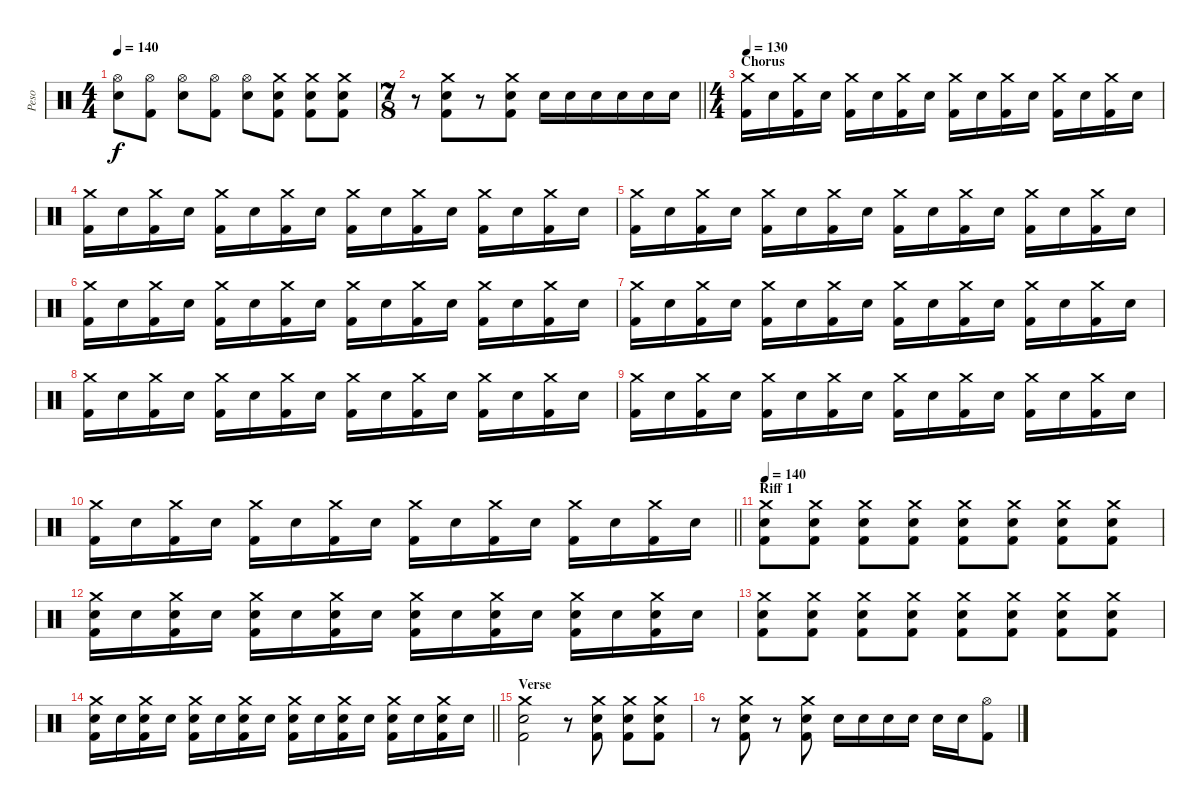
\track ("Peso" "Peso") {instrument percussion}
\staff {score}
\articulation defaults
\ts (4 4)
\tempo 140
\clef neutral
\ks c
("Hi-Hat (open)" "Electric Snare (hit)").8{dy f} ("Hi-Hat (open)" "Kick (hit) 2").8 ("Hi-Hat (open)" "Electric Snare (hit)").8 ("Hi-Hat (open)" "Kick (hit) 2").8 ("Hi-Hat (open)" "Electric Snare (hit)").8 ("Crash medium (hit)" "Electric Snare (hit)" "Kick (hit) 2").8 ("Crash medium (hit)" "Electric Snare (hit)" "Kick (hit) 2").8 ("Crash medium (hit)" "Electric Snare (hit)" "Kick (hit) 2").8 |
\ts (7 8)
\barLineRight lightlight
r.8 ("Crash medium (hit)" "Electric Snare (hit)" "Kick (hit) 2").8 r.8 ("Crash medium (hit)" "Electric Snare (hit)" "Kick (hit) 2").8 "Electric Snare (hit)".16 "Electric Snare (hit)".16 "Electric Snare (hit)".16 "Electric Snare (hit)".16 "Electric Snare (hit)".16 "Electric Snare (hit)".16 |
\ts (4 4)
\section ("" "Chorus")
\tempo 130
("Crash medium (hit)" "Kick (hit) 2").16 "Electric Snare (hit)".16 ("Crash medium (hit)" "Kick (hit) 2").16 "Electric Snare (hit)".16 ("Crash medium (hit)" "Kick (hit) 2").16 "Electric Snare (hit)".16 ("Crash medium (hit)" "Kick (hit) 2").16 "Electric Snare (hit)".16 ("Crash medium (hit)" "Kick (hit) 2").16 "Electric Snare (hit)".16 ("Crash medium (hit)" "Kick (hit) 2").16 "Electric Snare (hit)".16 ("Crash medium (hit)" "Kick (hit) 2").16 "Electric Snare (hit)".16 ("Crash medium (hit)" "Kick (hit) 2").16 "Electric Snare (hit)".16 |
("Crash medium (hit)" "Kick (hit) 2").16 "Electric Snare (hit)".16 ("Crash medium (hit)" "Kick (hit) 2").16 "Electric Snare (hit)".16 ("Crash medium (hit)" "Kick (hit) 2").16 "Electric Snare (hit)".16 ("Crash medium (hit)" "Kick (hit) 2").16 "Electric Snare (hit)".16 ("Crash medium (hit)" "Kick (hit) 2").16 "Electric Snare (hit)".16 ("Crash medium (hit)" "Kick (hit) 2").16 "Electric Snare (hit)".16 ("Crash medium (hit)" "Kick (hit) 2").16 "Electric Snare (hit)".16 ("Crash medium (hit)" "Kick (hit) 2").16 "Electric Snare (hit)".16 |
("Crash medium (hit)" "Kick (hit) 2").16 "Electric Snare (hit)".16 ("Crash medium (hit)" "Kick (hit) 2").16 "Electric Snare (hit)".16 ("Crash medium (hit)" "Kick (hit) 2").16 "Electric Snare (hit)".16 ("Crash medium (hit)" "Kick (hit) 2").16 "Electric Snare (hit)".16 ("Crash medium (hit)" "Kick (hit) 2").16 "Electric Snare (hit)".16 ("Crash medium (hit)" "Kick (hit) 2").16 "Electric Snare (hit)".16 ("Crash medium (hit)" "Kick (hit) 2").16 "Electric Snare (hit)".16 ("Crash medium (hit)" "Kick (hit) 2").16 "Electric Snare (hit)".16 |
("Crash medium (hit)" "Kick (hit) 2").16 "Electric Snare (hit)".16 ("Crash medium (hit)" "Kick (hit) 2").16 "Electric Snare (hit)".16 ("Crash medium (hit)" "Kick (hit) 2").16 "Electric Snare (hit)".16 ("Crash medium (hit)" "Kick (hit) 2").16 "Electric Snare (hit)".16 ("Crash medium (hit)" "Kick (hit) 2").16 "Electric Snare (hit)".16 ("Crash medium (hit)" "Kick (hit) 2").16 "Electric Snare (hit)".16 ("Crash medium (hit)" "Kick (hit) 2").16 "Electric Snare (hit)".16 ("Crash medium (hit)" "Kick (hit) 2").16 "Electric Snare (hit)".16 |
("Crash medium (hit)" "Kick (hit) 2").16 "Electric Snare (hit)".16 ("Crash medium (hit)" "Kick (hit) 2").16 "Electric Snare (hit)".16 ("Crash medium (hit)" "Kick (hit) 2").16 "Electric Snare (hit)".16 ("Crash medium (hit)" "Kick (hit) 2").16 "Electric Snare (hit)".16 ("Crash medium (hit)" "Kick (hit) 2").16 "Electric Snare (hit)".16 ("Crash medium (hit)" "Kick (hit) 2").16 "Electric Snare (hit)".16 ("Crash medium (hit)" "Kick (hit) 2").16 "Electric Snare (hit)".16 ("Crash medium (hit)" "Kick (hit) 2").16 "Electric Snare (hit)".16 |
("Crash medium (hit)" "Kick (hit) 2").16 "Electric Snare (hit)".16 ("Crash medium (hit)" "Kick (hit) 2").16 "Electric Snare (hit)".16 ("Crash medium (hit)" "Kick (hit) 2").16 "Electric Snare (hit)".16 ("Crash medium (hit)" "Kick (hit) 2").16 "Electric Snare (hit)".16 ("Crash medium (hit)" "Kick (hit) 2").16 "Electric Snare (hit)".16 ("Crash medium (hit)" "Kick (hit) 2").16 "Electric Snare (hit)".16 ("Crash medium (hit)" "Kick (hit) 2").16 "Electric Snare (hit)".16 ("Crash medium (hit)" "Kick (hit) 2").16 "Electric Snare (hit)".16 |
("Crash medium (hit)" "Kick (hit) 2").16 "Electric Snare (hit)".16 ("Crash medium (hit)" "Kick (hit) 2").16 "Electric Snare (hit)".16 ("Crash medium (hit)" "Kick (hit) 2").16 "Electric Snare (hit)".16 ("Crash medium (hit)" "Kick (hit) 2").16 "Electric Snare (hit)".16 ("Crash medium (hit)" "Kick (hit) 2").16 "Electric Snare (hit)".16 ("Crash medium (hit)" "Kick (hit) 2").16 "Electric Snare (hit)".16 ("Crash medium (hit)" "Kick (hit) 2").16 "Electric Snare (hit)".16 ("Crash medium (hit)" "Kick (hit) 2").16 "Electric Snare (hit)".16 |
\barLineRight lightlight
("Crash medium (hit)" "Kick (hit) 2").16 "Electric Snare (hit)".16 ("Crash medium (hit)" "Kick (hit) 2").16 "Electric Snare (hit)".16 ("Crash medium (hit)" "Kick (hit) 2").16 "Electric Snare (hit)".16 ("Crash medium (hit)" "Kick (hit) 2").16 "Electric Snare (hit)".16 ("Crash medium (hit)" "Kick (hit) 2").16 "Electric Snare (hit)".16 ("Crash medium (hit)" "Kick (hit) 2").16 "Electric Snare (hit)".16 ("Crash medium (hit)" "Kick (hit) 2").16 "Electric Snare (hit)".16 ("Crash medium (hit)" "Kick (hit) 2").16 "Electric Snare (hit)".16 |
\section ("" "Riff 1")
\tempo 140
("Crash medium (hit)" "Electric Snare (hit)" "Kick (hit) 2").8 ("Crash medium (hit)" "Electric Snare (hit)" "Kick (hit) 2").8 ("Crash medium (hit)" "Electric Snare (hit)" "Kick (hit) 2").8 ("Crash medium (hit)" "Electric Snare (hit)" "Kick (hit) 2").8 ("Crash medium (hit)" "Electric Snare (hit)" "Kick (hit) 2").8 ("Crash medium (hit)" "Electric Snare (hit)" "Kick (hit) 2").8 ("Crash medium (hit)" "Electric Snare (hit)" "Kick (hit) 2").8 ("Crash medium (hit)" "Electric Snare (hit)" "Kick (hit) 2").8 |
("Crash medium (hit)" "Electric Snare (hit)" "Kick (hit) 2").16 "Electric Snare (hit)".16 ("Crash medium (hit)" "Electric Snare (hit)" "Kick (hit) 2").16 "Electric Snare (hit)".16 ("Crash medium (hit)" "Electric Snare (hit)" "Kick (hit) 2").16 "Electric Snare (hit)".16 ("Crash medium (hit)" "Electric Snare (hit)" "Kick (hit) 2").16 "Electric Snare (hit)".16 ("Crash medium (hit)" "Electric Snare (hit)" "Kick (hit) 2").16 "Electric Snare (hit)".16 ("Crash medium (hit)" "Electric Snare (hit)" "Kick (hit) 2").16 "Electric Snare (hit)".16 ("Crash medium (hit)" "Electric Snare (hit)" "Kick (hit) 2").16 "Electric Snare (hit)".16 ("Crash medium (hit)" "Electric Snare (hit)" "Kick (hit) 2").16 "Electric Snare (hit)".16 |
("Crash medium (hit)" "Electric Snare (hit)" "Kick (hit) 2").8 ("Crash medium (hit)" "Electric Snare (hit)" "Kick (hit) 2").8 ("Crash medium (hit)" "Electric Snare (hit)" "Kick (hit) 2").8 ("Crash medium (hit)" "Electric Snare (hit)" "Kick (hit) 2").8 ("Crash medium (hit)" "Electric Snare (hit)" "Kick (hit) 2").8 ("Crash medium (hit)" "Electric Snare (hit)" "Kick (hit) 2").8 ("Crash medium (hit)" "Electric Snare (hit)" "Kick (hit) 2").8 ("Crash medium (hit)" "Electric Snare (hit)" "Kick (hit) 2").8 |
\barLineRight lightlight
("Crash medium (hit)" "Electric Snare (hit)" "Kick (hit) 2").16 "Electric Snare (hit)".16 ("Crash medium (hit)" "Electric Snare (hit)" "Kick (hit) 2").16 "Electric Snare (hit)".16 ("Crash medium (hit)" "Electric Snare (hit)" "Kick (hit) 2").16 "Electric Snare (hit)".16 ("Crash medium (hit)" "Electric Snare (hit)" "Kick (hit) 2").16 "Electric Snare (hit)".16 ("Crash medium (hit)" "Electric Snare (hit)" "Kick (hit) 2").16 "Electric Snare (hit)".16 ("Crash medium (hit)" "Electric Snare (hit)" "Kick (hit) 2").16 "Electric Snare (hit)".16 ("Crash medium (hit)" "Electric Snare (hit)" "Kick (hit) 2").16 "Electric Snare (hit)".16 ("Crash medium (hit)" "Electric Snare (hit)" "Kick (hit) 2").16 "Electric Snare (hit)".16 |
\section ("" "Verse")
("Crash medium (hit)" "Electric Snare (hit)" "Kick (hit) 2").2 r.8 ("Crash medium (hit)" "Electric Snare (hit)" "Kick (hit) 2").8 ("Crash medium (hit)" "Electric Snare (hit)" "Kick (hit) 2").8 ("Crash medium (hit)" "Electric Snare (hit)" "Kick (hit) 2").8 |
r.8 ("Crash medium (hit)" "Electric Snare (hit)" "Kick (hit) 2").8 r.8 ("Crash medium (hit)" "Electric Snare (hit)" "Kick (hit) 2").8 "Electric Snare (hit)".16 "Electric Snare (hit)".16 "Electric Snare (hit)".16 "Electric Snare (hit)".16 "Electric Snare (hit)".16 "Electric Snare (hit)".16 ("Hi-Hat (open)" "Kick (hit) 2").8
